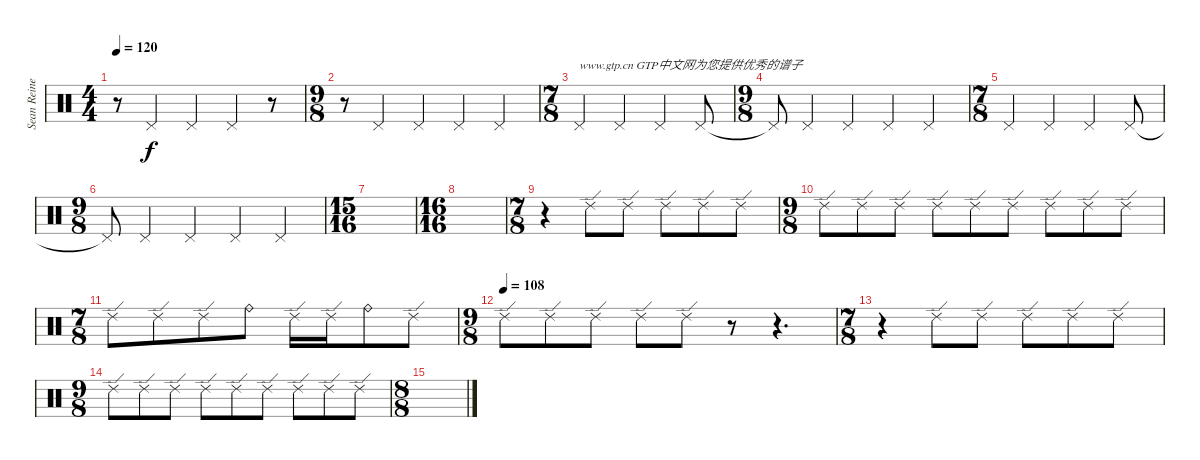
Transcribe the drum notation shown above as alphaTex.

\track ("Sean Reinert" "Sean Reine") {instrument percussion}
\staff {score}
\articulation defaults
\ts (4 4)
\tempo 120
\tempo 108
\tempo 120
\clef neutral
\ks c
r.8{dy f} "Pedal Hi-Hat (hit)".4 "Pedal Hi-Hat (hit)".4 "Pedal Hi-Hat (hit)".4 r.8 |
\ts (9 8)
r.8 "Pedal Hi-Hat (hit)".4 "Pedal Hi-Hat (hit)".4 "Pedal Hi-Hat (hit)".4 "Pedal Hi-Hat (hit)".4 |
\ts (7 8)
"Pedal Hi-Hat (hit)".4{txt "www.gtp.cn GTP中文网为您提供优秀的谱子"} "Pedal Hi-Hat (hit)".4 "Pedal Hi-Hat (hit)".4 "Pedal Hi-Hat (hit)".8 |
\ts (9 8)
"Pedal Hi-Hat (hit)"{t}.8 "Pedal Hi-Hat (hit)".4 "Pedal Hi-Hat (hit)".4 "Pedal Hi-Hat (hit)".4 "Pedal Hi-Hat (hit)".4 |
\ts (7 8)
"Pedal Hi-Hat (hit)".4 "Pedal Hi-Hat (hit)".4 "Pedal Hi-Hat (hit)".4 "Pedal Hi-Hat (hit)".8 |
\ts (9 8)
"Pedal Hi-Hat (hit)"{t}.8 "Pedal Hi-Hat (hit)".4 "Pedal Hi-Hat (hit)".4 "Pedal Hi-Hat (hit)".4 "Pedal Hi-Hat (hit)".4 |
\ts (15 16)
|
\ts (16 16)
|
\ts (7 8)
r.4 "Ride (edge) 2".8 "Ride (edge) 2".8 "Ride (edge) 2".8 "Ride (edge) 2".8 "Ride (edge) 2".8 |
\ts (9 8)
"Ride (edge) 2".8 "Ride (edge) 2".8 "Ride (edge) 2".8 "Ride (edge) 2".8 "Ride (edge) 2".8 "Ride (edge) 2".8 "Ride (edge) 2".8 "Ride (edge) 2".8 "Ride (edge) 2".8 |
\ts (7 8)
"Ride (edge) 2".8 "Ride (edge) 2".8 "Ride (edge) 2".8 "Ride (bell)".8 "Ride (edge) 2".16 "Ride (edge) 2".16 "Ride (bell)".8 "Ride (edge) 2".8 |
\ts (9 8)
\tempo (108)
"Ride (edge) 2".8 "Ride (edge) 2".8 "Ride (edge) 2".8 "Ride (edge) 2".8 "Ride (edge) 2".8 r.8 r.4{d} |
\ts (7 8)
r.4 "Ride (edge) 2".8 "Ride (edge) 2".8 "Ride (edge) 2".8 "Ride (edge) 2".8 "Ride (edge) 2".8 |
\ts (9 8)
"Ride (edge) 2".8 "Ride (edge) 2".8 "Ride (edge) 2".8 "Ride (edge) 2".8 "Ride (edge) 2".8 "Ride (edge) 2".8 "Ride (edge) 2".8 "Ride (edge) 2".8 "Ride (edge) 2".8 |
\ts (8 8)
